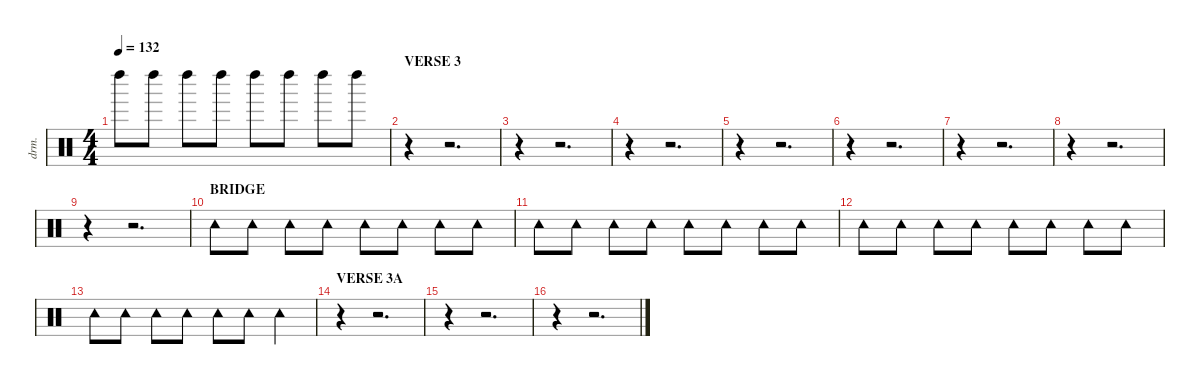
\defaultSystemsLayout 4
\hideDynamics
\bracketExtendMode nobrackets
\otherSystemsTrackNameOrientation horizontal
\track ("Percussion" "drm.") {instrument percussion}
\staff {score}
\articulation defaults
\ts (4 4)
\tempo 132
\clef neutral
\ks c "Left Maraca (hit)".8{dy f beam Down} "Left Maraca (hit)".8{beam Down} "Left Maraca (hit)".8{dy fff beam Down} "Left Maraca (hit)".8{dy f beam Down} "Left Maraca (hit)".8{beam Down} "Left Maraca (hit)".8{beam Down} "Left Maraca (hit)".8{dy fff beam Down} "Left Maraca (hit)".8{dy f beam Down}
|
\section ("" "VERSE 3")
r.4{beam Down} r.2{d beam Down} |
r.4{beam Down} r.2{d beam Down} |
r.4{beam Down} r.2{d beam Down} |
r.4{beam Down} r.2{d beam Down} |
r.4{beam Down} r.2{d beam Down} |
r.4{beam Down} r.2{d beam Down} |
r.4{beam Down} r.2{d beam Down} |
r.4{beam Down} r.2{d beam Down} |
\section ("" "BRIDGE")
"Tambourine (hit)".8{beam Down} "Tambourine (hit)".8{beam Down} "Tambourine (hit)".8{dy fff beam Down} "Tambourine (hit)".8{dy f beam Down} "Tambourine (hit)".8{beam Down} "Tambourine (hit)".8{beam Down} "Tambourine (hit)".8{dy fff beam Down} "Tambourine (hit)".8{dy f beam Down} |
"Tambourine (hit)".8{beam Down} "Tambourine (hit)".8{beam Down} "Tambourine (hit)".8{dy fff beam Down} "Tambourine (hit)".8{dy f beam Down} "Tambourine (hit)".8{beam Down} "Tambourine (hit)".8{beam Down} "Tambourine (hit)".8{dy fff beam Down} "Tambourine (hit)".8{dy f beam Down} |
"Tambourine (hit)".8{beam Down} "Tambourine (hit)".8{beam Down} "Tambourine (hit)".8{dy fff beam Down} "Tambourine (hit)".8{dy f beam Down} "Tambourine (hit)".8{beam Down} "Tambourine (hit)".8{beam Down} "Tambourine (hit)".8{dy fff beam Down} "Tambourine (hit)".8{dy f beam Down} |
"Tambourine (hit)".8{beam Down} "Tambourine (hit)".8{beam Down} "Tambourine (hit)".8{dy fff beam Down} "Tambourine (hit)".8{dy f beam Down} "Tambourine (hit)".8{beam Down} "Tambourine (hit)".8{beam Down} "Tambourine (hit)".4{dy fff beam Down} |
\section ("" "VERSE 3A")
r.4{beam Down} r.2{d beam Down} |
r.4{beam Down} r.2{d beam Down} |
r.4{beam Down} r.2{d beam Down}
